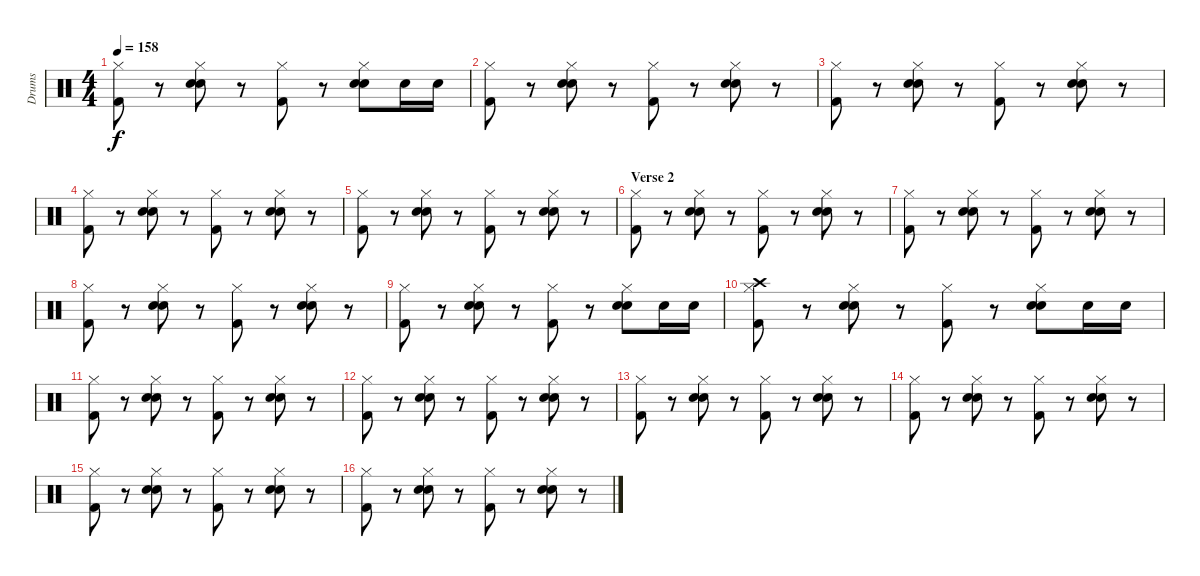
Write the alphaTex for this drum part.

\track ("Drums" "Drums") {instrument percussion}
\staff {score}
\articulation defaults
\ts (4 4)
\tempo 158
\clef neutral
\ks c
("Hi-Hat (closed)" "Kick (hit) 2").8{dy f} r.8 ("Hi-Hat (closed)" "Snare (hit) 2" "Snare (hit) 2").8 r.8 ("Hi-Hat (closed)" "Kick (hit) 2").8 r.8 ("Hi-Hat (closed)" "Snare (hit) 2" "Snare (hit) 2").8 "Snare (hit) 2".16 "Snare (hit) 2".16 |
("Hi-Hat (closed)" "Kick (hit) 2").8 r.8 ("Hi-Hat (closed)" "Snare (hit) 2" "Snare (hit) 2").8 r.8 ("Hi-Hat (closed)" "Kick (hit) 2").8 r.8 ("Hi-Hat (closed)" "Snare (hit) 2" "Snare (hit) 2").8 r.8 |
("Hi-Hat (closed)" "Kick (hit) 2").8 r.8 ("Hi-Hat (closed)" "Snare (hit) 2" "Snare (hit) 2").8 r.8 ("Hi-Hat (closed)" "Kick (hit) 2").8 r.8 ("Hi-Hat (closed)" "Snare (hit) 2" "Snare (hit) 2").8 r.8 |
("Hi-Hat (closed)" "Kick (hit) 2").8 r.8 ("Hi-Hat (closed)" "Snare (hit) 2" "Snare (hit) 2").8 r.8 ("Hi-Hat (closed)" "Kick (hit) 2").8 r.8 ("Hi-Hat (closed)" "Snare (hit) 2" "Snare (hit) 2").8 r.8 |
("Hi-Hat (closed)" "Kick (hit) 2").8 r.8 ("Hi-Hat (closed)" "Snare (hit) 2" "Snare (hit) 2").8 r.8 ("Hi-Hat (closed)" "Kick (hit) 2").8 r.8 ("Hi-Hat (closed)" "Snare (hit) 2" "Snare (hit) 2").8 r.8 |
\section ("" "Verse 2")
("Hi-Hat (closed)" "Kick (hit) 2").8 r.8 ("Hi-Hat (closed)" "Snare (hit) 2" "Snare (hit) 2").8 r.8 ("Hi-Hat (closed)" "Kick (hit) 2").8 r.8 ("Hi-Hat (closed)" "Snare (hit) 2" "Snare (hit) 2").8 r.8 |
("Hi-Hat (closed)" "Kick (hit) 2").8 r.8 ("Hi-Hat (closed)" "Snare (hit) 2" "Snare (hit) 2").8 r.8 ("Hi-Hat (closed)" "Kick (hit) 2").8 r.8 ("Hi-Hat (closed)" "Snare (hit) 2" "Snare (hit) 2").8 r.8 |
("Hi-Hat (closed)" "Kick (hit) 2").8 r.8 ("Hi-Hat (closed)" "Snare (hit) 2" "Snare (hit) 2").8 r.8 ("Hi-Hat (closed)" "Kick (hit) 2").8 r.8 ("Hi-Hat (closed)" "Snare (hit) 2" "Snare (hit) 2").8 r.8 |
("Hi-Hat (closed)" "Kick (hit) 2").8 r.8 ("Hi-Hat (closed)" "Snare (hit) 2" "Snare (hit) 2").8 r.8 ("Hi-Hat (closed)" "Kick (hit) 2").8 r.8 ("Hi-Hat (closed)" "Snare (hit) 2" "Snare (hit) 2").8 "Snare (hit) 2".16 "Snare (hit) 2".16 |
("Hi-Hat (closed)" "Crash high (hit)" "Kick (hit) 2").8 r.8 ("Hi-Hat (closed)" "Snare (hit) 2" "Snare (hit) 2").8 r.8 ("Hi-Hat (closed)" "Kick (hit) 2").8 r.8 ("Hi-Hat (closed)" "Snare (hit) 2" "Snare (hit) 2").8 "Snare (hit) 2".16 "Snare (hit) 2".16 |
("Hi-Hat (closed)" "Kick (hit) 2").8 r.8 ("Hi-Hat (closed)" "Snare (hit) 2" "Snare (hit) 2").8 r.8 ("Hi-Hat (closed)" "Kick (hit) 2").8 r.8 ("Hi-Hat (closed)" "Snare (hit) 2" "Snare (hit) 2").8 r.8 |
("Hi-Hat (closed)" "Kick (hit) 2").8 r.8 ("Hi-Hat (closed)" "Snare (hit) 2" "Snare (hit) 2").8 r.8 ("Hi-Hat (closed)" "Kick (hit) 2").8 r.8 ("Hi-Hat (closed)" "Snare (hit) 2" "Snare (hit) 2").8 r.8 |
("Hi-Hat (closed)" "Kick (hit) 2").8 r.8 ("Hi-Hat (closed)" "Snare (hit) 2" "Snare (hit) 2").8 r.8 ("Hi-Hat (closed)" "Kick (hit) 2").8 r.8 ("Hi-Hat (closed)" "Snare (hit) 2" "Snare (hit) 2").8 r.8 |
("Hi-Hat (closed)" "Kick (hit) 2").8 r.8 ("Hi-Hat (closed)" "Snare (hit) 2" "Snare (hit) 2").8 r.8 ("Hi-Hat (closed)" "Kick (hit) 2").8 r.8 ("Hi-Hat (closed)" "Snare (hit) 2" "Snare (hit) 2").8 r.8 |
("Hi-Hat (closed)" "Kick (hit) 2").8 r.8 ("Hi-Hat (closed)" "Snare (hit) 2" "Snare (hit) 2").8 r.8 ("Hi-Hat (closed)" "Kick (hit) 2").8 r.8 ("Hi-Hat (closed)" "Snare (hit) 2" "Snare (hit) 2").8 r.8 |
("Hi-Hat (closed)" "Kick (hit) 2").8 r.8 ("Hi-Hat (closed)" "Snare (hit) 2" "Snare (hit) 2").8 r.8 ("Hi-Hat (closed)" "Kick (hit) 2").8 r.8 ("Hi-Hat (closed)" "Snare (hit) 2" "Snare (hit) 2").8 r.8
